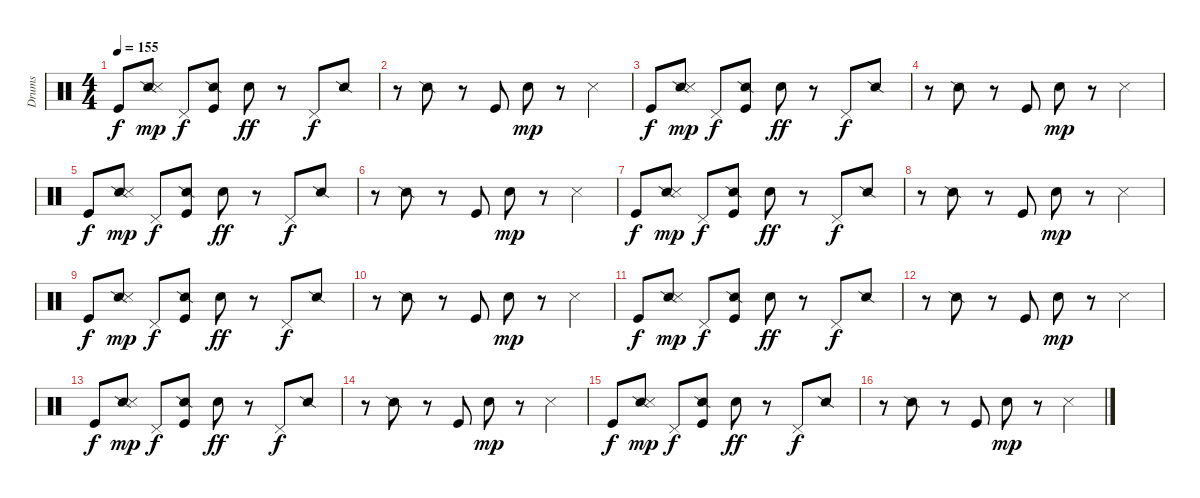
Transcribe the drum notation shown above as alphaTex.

\track ("Drums" "Drums") {instrument percussion}
\staff {score}
\articulation defaults
\ts (4 4)
\tempo 155
\clef neutral
\ks c "Kick (hit)".8{dy f}
("Snare (side stick) 2" "Snare (side stick) 3").8{dy mp} "Pedal Hi-Hat (hit)".8{dy f} ("Snare (side stick) 2" "Kick (hit)").8 "Electric Snare (hit)".8{dy ff} r.8 "Pedal Hi-Hat (hit)".8{dy f} "Snare (side stick) 2".8 |
r.8 "Snare (side stick) 2".8 r.8 "Kick (hit)".8 "Electric Snare (hit)".8{dy mp} r.8 "Snare (side stick) 3".4 |
"Kick (hit)".8{dy f} ("Snare (side stick) 2" "Snare (side stick) 3").8{dy mp} "Pedal Hi-Hat (hit)".8{dy f} ("Snare (side stick) 2" "Kick (hit)").8 "Electric Snare (hit)".8{dy ff} r.8 "Pedal Hi-Hat (hit)".8{dy f} "Snare (side stick) 2".8 |
r.8 "Snare (side stick) 2".8 r.8 "Kick (hit)".8 "Electric Snare (hit)".8{dy mp} r.8 "Snare (side stick) 3".4 |
"Kick (hit)".8{dy f} ("Snare (side stick) 2" "Snare (side stick) 3").8{dy mp} "Pedal Hi-Hat (hit)".8{dy f} ("Snare (side stick) 2" "Kick (hit)").8 "Electric Snare (hit)".8{dy ff} r.8 "Pedal Hi-Hat (hit)".8{dy f} "Snare (side stick) 2".8 |
r.8 "Snare (side stick) 2".8 r.8 "Kick (hit)".8 "Electric Snare (hit)".8{dy mp} r.8 "Snare (side stick) 3".4 |
"Kick (hit)".8{dy f} ("Snare (side stick) 2" "Snare (side stick) 3").8{dy mp} "Pedal Hi-Hat (hit)".8{dy f} ("Snare (side stick) 2" "Kick (hit)").8 "Electric Snare (hit)".8{dy ff} r.8 "Pedal Hi-Hat (hit)".8{dy f} "Snare (side stick) 2".8 |
r.8 "Snare (side stick) 2".8 r.8 "Kick (hit)".8 "Electric Snare (hit)".8{dy mp} r.8 "Snare (side stick) 3".4 |
"Kick (hit)".8{dy f} ("Snare (side stick) 2" "Snare (side stick) 3").8{dy mp} "Pedal Hi-Hat (hit)".8{dy f} ("Snare (side stick) 2" "Kick (hit)").8 "Electric Snare (hit)".8{dy ff} r.8 "Pedal Hi-Hat (hit)".8{dy f} "Snare (side stick) 2".8 |
r.8 "Snare (side stick) 2".8 r.8 "Kick (hit)".8 "Electric Snare (hit)".8{dy mp} r.8 "Snare (side stick) 3".4 |
"Kick (hit)".8{dy f} ("Snare (side stick) 2" "Snare (side stick) 3").8{dy mp} "Pedal Hi-Hat (hit)".8{dy f} ("Snare (side stick) 2" "Kick (hit)").8 "Electric Snare (hit)".8{dy ff} r.8 "Pedal Hi-Hat (hit)".8{dy f} "Snare (side stick) 2".8 |
r.8 "Snare (side stick) 2".8 r.8 "Kick (hit)".8 "Electric Snare (hit)".8{dy mp} r.8 "Snare (side stick) 3".4 |
"Kick (hit)".8{dy f} ("Snare (side stick) 2" "Snare (side stick) 3").8{dy mp} "Pedal Hi-Hat (hit)".8{dy f} ("Snare (side stick) 2" "Kick (hit)").8 "Electric Snare (hit)".8{dy ff} r.8 "Pedal Hi-Hat (hit)".8{dy f} "Snare (side stick) 2".8 |
r.8 "Snare (side stick) 2".8 r.8 "Kick (hit)".8 "Electric Snare (hit)".8{dy mp} r.8 "Snare (side stick) 3".4 |
"Kick (hit)".8{dy f} ("Snare (side stick) 2" "Snare (side stick) 3").8{dy mp} "Pedal Hi-Hat (hit)".8{dy f} ("Snare (side stick) 2" "Kick (hit)").8 "Electric Snare (hit)".8{dy ff} r.8 "Pedal Hi-Hat (hit)".8{dy f} "Snare (side stick) 2".8 |
r.8 "Snare (side stick) 2".8 r.8 "Kick (hit)".8 "Electric Snare (hit)".8{dy mp} r.8 "Snare (side stick) 3".4
